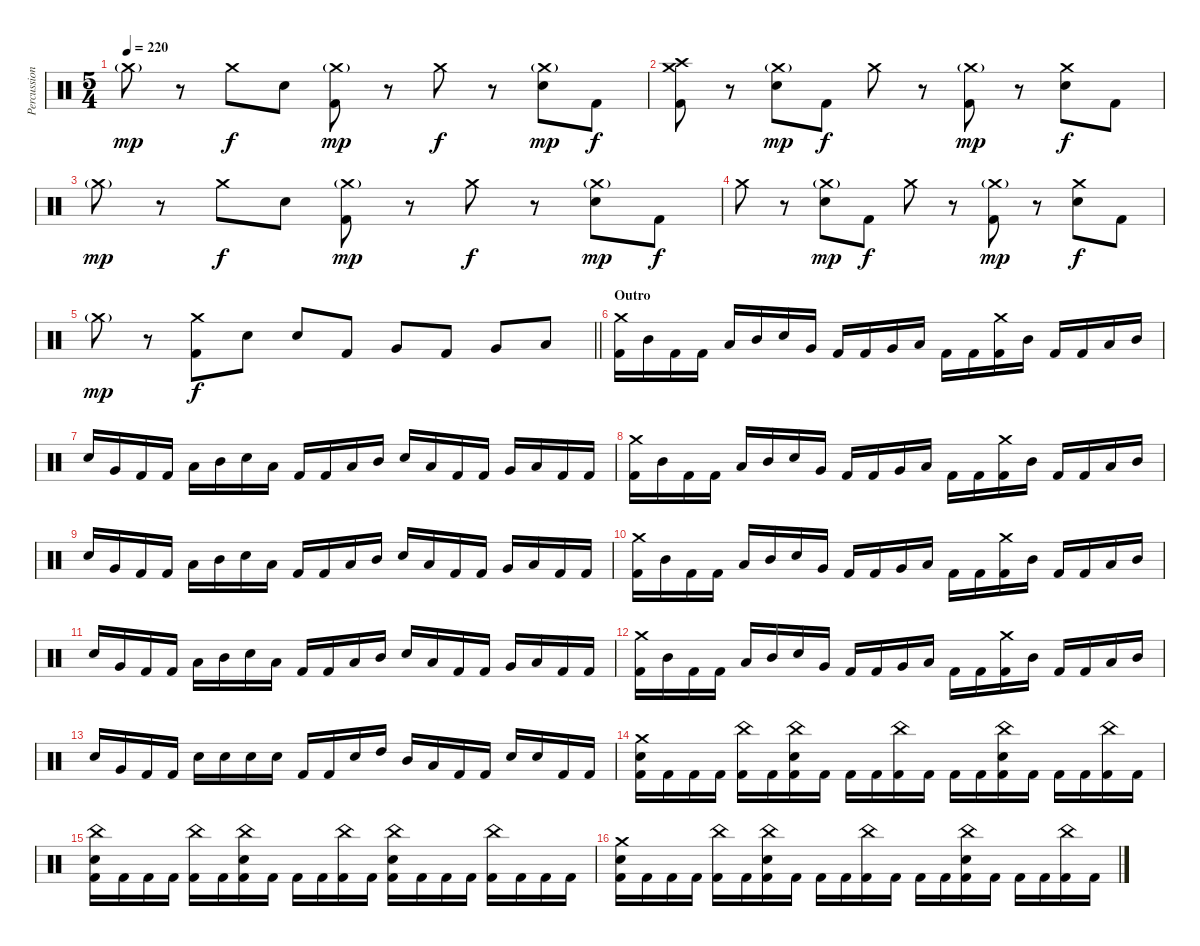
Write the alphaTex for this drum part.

\track ("Percussion" "Percussion") {instrument percussion}
\staff {score}
\articulation defaults
\ts (5 4)
\tempo 220
\clef neutral
\ks c "Crash medium (hit)"{g}.8{dy mp}
r.8 "Crash medium (hit)".8{dy f} "Electric Snare (hit)".8 ("Crash medium (hit)"{g} "Kick (hit) 2").8{dy mp} r.8 "Crash medium (hit)".8{dy f} r.8 ("Crash medium (hit)"{g} "Electric Snare (hit)").8{dy mp} "Kick (hit) 2".8{dy f} |
("Crash medium (hit)" "Crash high (hit)" "Kick (hit) 2").8 r.8 ("Crash medium (hit)"{g} "Electric Snare (hit)").8{dy mp} "Kick (hit) 2".8{dy f} "Crash medium (hit)".8 r.8 ("Crash medium (hit)"{g} "Kick (hit) 2").8{dy mp} r.8 ("Crash medium (hit)" "Electric Snare (hit)").8{dy f} "Kick (hit) 2".8 |
"Crash medium (hit)"{g}.8{dy mp} r.8 "Crash medium (hit)".8{dy f} "Electric Snare (hit)".8 ("Crash medium (hit)"{g} "Kick (hit) 2").8{dy mp} r.8 "Crash medium (hit)".8{dy f} r.8 ("Crash medium (hit)"{g} "Electric Snare (hit)").8{dy mp} "Kick (hit) 2".8{dy f} |
"Crash medium (hit)".8 r.8 ("Crash medium (hit)"{g} "Electric Snare (hit)").8{dy mp} "Kick (hit) 2".8{dy f} "Crash medium (hit)".8 r.8 ("Crash medium (hit)"{g} "Kick (hit) 2").8{dy mp} r.8 ("Crash medium (hit)" "Electric Snare (hit)").8{dy f} "Kick (hit) 2".8 |
\barLineRight lightlight "Crash medium (hit)"{g}.8{dy mp}
r.8 ("Crash medium (hit)" "Kick (hit) 2").8{dy f} "Electric Snare (hit)".8 "Electric Snare (hit)".8 "Kick (hit) 2".8 "Very Low Tom (hit)".8 "Kick (hit) 2".8 "Very Low Tom (hit)".8 "Low Floor Tom (hit)".8 |
\section ("" "Outro")
("Crash medium (hit)" "Kick (hit) 2").16 "Mid Tom (hit)".16 "Kick (hit) 2".16 "Kick (hit) 2".16 "Low Tom (hit)".16 "Mid Tom (hit)".16 "Electric Snare (hit)".16 "Very Low Tom (hit)".16 "Kick (hit) 2".16 "Kick (hit) 2".16 "Very Low Tom (hit)".16 "Low Floor Tom (hit)".16 "Kick (hit) 2".16 "Kick (hit) 2".16 ("Crash medium (hit)" "Kick (hit) 2").16 "Mid Tom (hit)".16 "Kick (hit) 2".16 "Kick (hit) 2".16 "Low Tom (hit)".16 "Mid Tom (hit)".16 |
"Electric Snare (hit)".16 "Very Low Tom (hit)".16 "Kick (hit) 2".16 "Kick (hit) 2".16 "Low Tom (hit)".16 "Mid Tom (hit)".16 "Electric Snare (hit)".16 "Low Tom (hit)".16 "Kick (hit) 2".16 "Kick (hit) 2".16 "Low Tom (hit)".16 "Mid Tom (hit)".16 "Electric Snare (hit)".16 "Low Tom (hit)".16 "Kick (hit) 2".16 "Kick (hit) 2".16 "Very Low Tom (hit)".16 "Low Floor Tom (hit)".16 "Kick (hit) 2".16 "Kick (hit) 2".16 |
("Crash medium (hit)" "Kick (hit) 2").16 "Mid Tom (hit)".16 "Kick (hit) 2".16 "Kick (hit) 2".16 "Low Tom (hit)".16 "Mid Tom (hit)".16 "Electric Snare (hit)".16 "Very Low Tom (hit)".16 "Kick (hit) 2".16 "Kick (hit) 2".16 "Very Low Tom (hit)".16 "Low Floor Tom (hit)".16 "Kick (hit) 2".16 "Kick (hit) 2".16 ("Crash medium (hit)" "Kick (hit) 2").16 "Mid Tom (hit)".16 "Kick (hit) 2".16 "Kick (hit) 2".16 "Low Tom (hit)".16 "Mid Tom (hit)".16 |
"Electric Snare (hit)".16 "Very Low Tom (hit)".16 "Kick (hit) 2".16 "Kick (hit) 2".16 "Low Tom (hit)".16 "Mid Tom (hit)".16 "Electric Snare (hit)".16 "Low Tom (hit)".16 "Kick (hit) 2".16 "Kick (hit) 2".16 "Low Tom (hit)".16 "Mid Tom (hit)".16 "Electric Snare (hit)".16 "Low Tom (hit)".16 "Kick (hit) 2".16 "Kick (hit) 2".16 "Very Low Tom (hit)".16 "Low Floor Tom (hit)".16 "Kick (hit) 2".16 "Kick (hit) 2".16 |
("Crash medium (hit)" "Kick (hit) 2").16 "Mid Tom (hit)".16 "Kick (hit) 2".16 "Kick (hit) 2".16 "Low Tom (hit)".16 "Mid Tom (hit)".16 "Electric Snare (hit)".16 "Very Low Tom (hit)".16 "Kick (hit) 2".16 "Kick (hit) 2".16 "Very Low Tom (hit)".16 "Low Floor Tom (hit)".16 "Kick (hit) 2".16 "Kick (hit) 2".16 ("Crash medium (hit)" "Kick (hit) 2").16 "Mid Tom (hit)".16 "Kick (hit) 2".16 "Kick (hit) 2".16 "Low Tom (hit)".16 "Mid Tom (hit)".16 |
"Electric Snare (hit)".16 "Very Low Tom (hit)".16 "Kick (hit) 2".16 "Kick (hit) 2".16 "Low Tom (hit)".16 "Mid Tom (hit)".16 "Electric Snare (hit)".16 "Low Tom (hit)".16 "Kick (hit) 2".16 "Kick (hit) 2".16 "Low Tom (hit)".16 "Mid Tom (hit)".16 "Electric Snare (hit)".16 "Low Tom (hit)".16 "Kick (hit) 2".16 "Kick (hit) 2".16 "Very Low Tom (hit)".16 "Low Floor Tom (hit)".16 "Kick (hit) 2".16 "Kick (hit) 2".16 |
("Crash medium (hit)" "Kick (hit) 2").16 "Mid Tom (hit)".16 "Kick (hit) 2".16 "Kick (hit) 2".16 "Low Tom (hit)".16 "Mid Tom (hit)".16 "Electric Snare (hit)".16 "Very Low Tom (hit)".16 "Kick (hit) 2".16 "Kick (hit) 2".16 "Very Low Tom (hit)".16 "Low Floor Tom (hit)".16 "Kick (hit) 2".16 "Kick (hit) 2".16 ("Crash medium (hit)" "Kick (hit) 2").16 "Mid Tom (hit)".16 "Kick (hit) 2".16 "Kick (hit) 2".16 "Low Tom (hit)".16 "Mid Tom (hit)".16 |
"Electric Snare (hit)".16 "Very Low Tom (hit)".16 "Kick (hit) 2".16 "Kick (hit) 2".16 "Electric Snare (hit)".16 "Electric Snare (hit)".16 "Electric Snare (hit)".16 "Electric Snare (hit)".16 "Kick (hit) 2".16 "Kick (hit) 2".16 "Electric Snare (hit)".16 "High Tom (hit)".16 "Mid Tom (hit)".16 "Low Tom (hit)".16 "Kick (hit) 2".16 "Kick (hit) 2".16 "Electric Snare (hit)".16 "Electric Snare (hit)".16 "Kick (hit) 2".16 "Kick (hit) 2".16 |
("Crash medium (hit)" "Electric Snare (hit)" "Kick (hit) 2").16 "Kick (hit) 2".16 "Kick (hit) 2".16 "Kick (hit) 2".16 ("China (hit)" "Kick (hit) 2").16 "Kick (hit) 2".16 ("China (hit)" "Electric Snare (hit)" "Kick (hit) 2").16 "Kick (hit) 2".16 "Kick (hit) 2".16 "Kick (hit) 2".16 ("China (hit)" "Kick (hit) 2").16 "Kick (hit) 2".16 "Kick (hit) 2".16 "Kick (hit) 2".16 ("China (hit)" "Electric Snare (hit)" "Kick (hit) 2").16 "Kick (hit) 2".16 "Kick (hit) 2".16 "Kick (hit) 2".16 ("China (hit)" "Kick (hit) 2").16 "Kick (hit) 2".16 |
("China (hit)" "Electric Snare (hit)" "Kick (hit) 2").16 "Kick (hit) 2".16 "Kick (hit) 2".16 "Kick (hit) 2".16 ("China (hit)" "Kick (hit) 2").16 "Kick (hit) 2".16 ("China (hit)" "Electric Snare (hit)" "Kick (hit) 2").16 "Kick (hit) 2".16 "Kick (hit) 2".16 "Kick (hit) 2".16 ("China (hit)" "Kick (hit) 2").16 "Kick (hit) 2".16 ("China (hit)" "Electric Snare (hit)" "Kick (hit) 2").16 "Kick (hit) 2".16 "Kick (hit) 2".16 "Kick (hit) 2".16 ("China (hit)" "Kick (hit) 2").16 "Kick (hit) 2".16 "Kick (hit) 2".16 "Kick (hit) 2".16 |
("Crash medium (hit)" "Electric Snare (hit)" "Kick (hit) 2").16 "Kick (hit) 2".16 "Kick (hit) 2".16 "Kick (hit) 2".16 ("China (hit)" "Kick (hit) 2").16 "Kick (hit) 2".16 ("China (hit)" "Electric Snare (hit)" "Kick (hit) 2").16 "Kick (hit) 2".16 "Kick (hit) 2".16 "Kick (hit) 2".16 ("China (hit)" "Kick (hit) 2").16 "Kick (hit) 2".16 "Kick (hit) 2".16 "Kick (hit) 2".16 ("China (hit)" "Electric Snare (hit)" "Kick (hit) 2").16 "Kick (hit) 2".16 "Kick (hit) 2".16 "Kick (hit) 2".16 ("China (hit)" "Kick (hit) 2").16 "Kick (hit) 2".16
